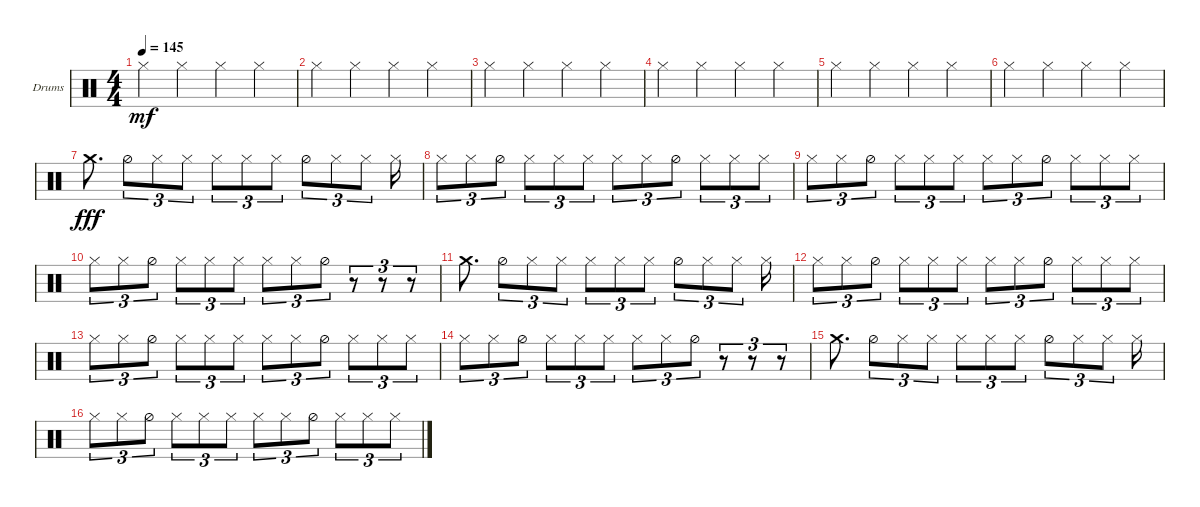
\defaultSystemsLayout 4
\bracketExtendMode groupsimilarinstruments
\firstSystemTrackNameOrientation horizontal
\otherSystemsTrackNameOrientation horizontal
\track ("Helders" "Drums") {instrument percussion}
\staff {score}
\articulation defaults
\ts (4 4)
\tempo 145
\clef neutral
\ks c "Hi-Hat (closed)".4{dy mf} "Hi-Hat (closed)".4 "Hi-Hat (closed)".4 "Hi-Hat (closed)".4
|
"Hi-Hat (closed)".4 "Hi-Hat (closed)".4 "Hi-Hat (closed)".4 "Hi-Hat (closed)".4 |
"Hi-Hat (closed)".4 "Hi-Hat (closed)".4 "Hi-Hat (closed)".4 "Hi-Hat (closed)".4 |
"Hi-Hat (closed)".4 "Hi-Hat (closed)".4 "Hi-Hat (closed)".4 "Hi-Hat (closed)".4 |
"Hi-Hat (closed)".4 "Hi-Hat (closed)".4 "Hi-Hat (closed)".4 "Hi-Hat (closed)".4 |
"Hi-Hat (closed)".4 "Hi-Hat (closed)".4 "Hi-Hat (closed)".4 "Hi-Hat (closed)".4 |
"Crash medium (hit)".8{d dy fff} "Hi-Hat (half)".8{tu (3 2)} "Hi-Hat (closed)".8{tu (3 2)} "Hi-Hat (closed)".8{tu (3 2)} "Hi-Hat (closed)".8{tu (3 2)} "Hi-Hat (closed)".8{tu (3 2)} "Hi-Hat (closed)".8{tu (3 2)} "Hi-Hat (half)".8{tu (3 2)} "Hi-Hat (closed)".8{tu (3 2)} "Hi-Hat (closed)".8{tu (3 2)} "Hi-Hat (closed)".16 |
"Hi-Hat (closed)".8{tu (3 2)} "Hi-Hat (closed)".8{tu (3 2)} "Hi-Hat (half)".8{tu (3 2)} "Hi-Hat (closed)".8{tu (3 2)} "Hi-Hat (closed)".8{tu (3 2)} "Hi-Hat (closed)".8{tu (3 2)} "Hi-Hat (closed)".8{tu (3 2)} "Hi-Hat (closed)".8{tu (3 2)} "Hi-Hat (half)".8{tu (3 2)} "Hi-Hat (closed)".8{tu (3 2)} "Hi-Hat (closed)".8{tu (3 2)} "Hi-Hat (closed)".8{tu (3 2)} |
"Hi-Hat (closed)".8{tu (3 2)} "Hi-Hat (closed)".8{tu (3 2)} "Hi-Hat (half)".8{tu (3 2)} "Hi-Hat (closed)".8{tu (3 2)} "Hi-Hat (closed)".8{tu (3 2)} "Hi-Hat (closed)".8{tu (3 2)} "Hi-Hat (closed)".8{tu (3 2)} "Hi-Hat (closed)".8{tu (3 2)} "Hi-Hat (half)".8{tu (3 2)} "Hi-Hat (closed)".8{tu (3 2)} "Hi-Hat (closed)".8{tu (3 2)} "Hi-Hat (closed)".8{tu (3 2)} |
"Hi-Hat (closed)".8{tu (3 2)} "Hi-Hat (closed)".8{tu (3 2)} "Hi-Hat (half)".8{tu (3 2)} "Hi-Hat (closed)".8{tu (3 2)} "Hi-Hat (closed)".8{tu (3 2)} "Hi-Hat (closed)".8{tu (3 2)} "Hi-Hat (closed)".8{tu (3 2)} "Hi-Hat (closed)".8{tu (3 2)} "Hi-Hat (half)".8{tu (3 2)} r.8{tu (3 2)} r.8{tu (3 2)} r.8{tu (3 2)} |
"Crash medium (hit)".8{d} "Hi-Hat (half)".8{tu (3 2)} "Hi-Hat (closed)".8{tu (3 2)} "Hi-Hat (closed)".8{tu (3 2)} "Hi-Hat (closed)".8{tu (3 2)} "Hi-Hat (closed)".8{tu (3 2)} "Hi-Hat (closed)".8{tu (3 2)} "Hi-Hat (half)".8{tu (3 2)} "Hi-Hat (closed)".8{tu (3 2)} "Hi-Hat (closed)".8{tu (3 2)} "Hi-Hat (closed)".16 |
"Hi-Hat (closed)".8{tu (3 2)} "Hi-Hat (closed)".8{tu (3 2)} "Hi-Hat (half)".8{tu (3 2)} "Hi-Hat (closed)".8{tu (3 2)} "Hi-Hat (closed)".8{tu (3 2)} "Hi-Hat (closed)".8{tu (3 2)} "Hi-Hat (closed)".8{tu (3 2)} "Hi-Hat (closed)".8{tu (3 2)} "Hi-Hat (half)".8{tu (3 2)} "Hi-Hat (closed)".8{tu (3 2)} "Hi-Hat (closed)".8{tu (3 2)} "Hi-Hat (closed)".8{tu (3 2)} |
"Hi-Hat (closed)".8{tu (3 2)} "Hi-Hat (closed)".8{tu (3 2)} "Hi-Hat (half)".8{tu (3 2)} "Hi-Hat (closed)".8{tu (3 2)} "Hi-Hat (closed)".8{tu (3 2)} "Hi-Hat (closed)".8{tu (3 2)} "Hi-Hat (closed)".8{tu (3 2)} "Hi-Hat (closed)".8{tu (3 2)} "Hi-Hat (half)".8{tu (3 2)} "Hi-Hat (closed)".8{tu (3 2)} "Hi-Hat (closed)".8{tu (3 2)} "Hi-Hat (closed)".8{tu (3 2)} |
"Hi-Hat (closed)".8{tu (3 2)} "Hi-Hat (closed)".8{tu (3 2)} "Hi-Hat (half)".8{tu (3 2)} "Hi-Hat (closed)".8{tu (3 2)} "Hi-Hat (closed)".8{tu (3 2)} "Hi-Hat (closed)".8{tu (3 2)} "Hi-Hat (closed)".8{tu (3 2)} "Hi-Hat (closed)".8{tu (3 2)} "Hi-Hat (half)".8{tu (3 2)} r.8{tu (3 2)} r.8{tu (3 2)} r.8{tu (3 2)} |
"Crash medium (hit)".8{d} "Hi-Hat (half)".8{tu (3 2)} "Hi-Hat (closed)".8{tu (3 2)} "Hi-Hat (closed)".8{tu (3 2)} "Hi-Hat (closed)".8{tu (3 2)} "Hi-Hat (closed)".8{tu (3 2)} "Hi-Hat (closed)".8{tu (3 2)} "Hi-Hat (half)".8{tu (3 2)} "Hi-Hat (closed)".8{tu (3 2)} "Hi-Hat (closed)".8{tu (3 2)} "Hi-Hat (closed)".16 |
"Hi-Hat (closed)".8{tu (3 2)} "Hi-Hat (closed)".8{tu (3 2)} "Hi-Hat (half)".8{tu (3 2)} "Hi-Hat (closed)".8{tu (3 2)} "Hi-Hat (closed)".8{tu (3 2)} "Hi-Hat (closed)".8{tu (3 2)} "Hi-Hat (closed)".8{tu (3 2)} "Hi-Hat (closed)".8{tu (3 2)} "Hi-Hat (half)".8{tu (3 2)} "Hi-Hat (closed)".8{tu (3 2)} "Hi-Hat (closed)".8{tu (3 2)} "Hi-Hat (closed)".8{tu (3 2)}
